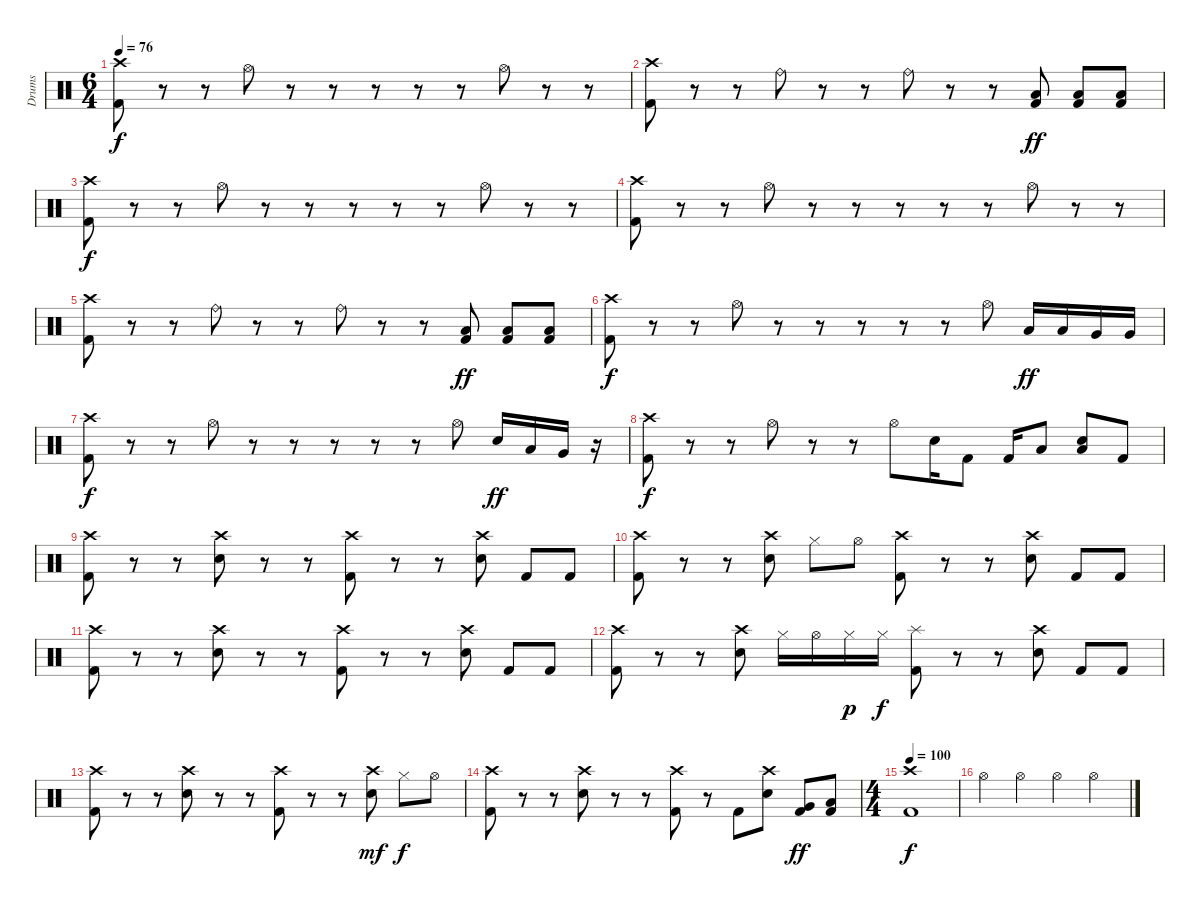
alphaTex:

\track ("Drums" "Drums") {instrument percussion}
\staff {score}
\articulation defaults
\ts (6 4)
\tempo 76
\clef neutral
\ks c
("Kick (hit) 2" "Crash high (hit)").8{dy f} r.8 r.8 "Hi-Hat (open)".8 r.8 r.8 r.8 r.8 r.8 "Hi-Hat (open)".8 r.8 r.8 |
("Kick (hit) 2" "Crash high (hit)").8 r.8 r.8 "Ride (bell)".8 r.8 r.8 "Ride (bell)".8 r.8 r.8 ("Kick (hit) 2" "Low Tom (hit)").8{dy ff} ("Kick (hit) 2" "Low Tom (hit)").8 ("Kick (hit) 2" "Low Tom (hit)").8 |
("Kick (hit) 2" "Crash high (hit)").8{dy f} r.8 r.8 "Hi-Hat (open)".8 r.8 r.8 r.8 r.8 r.8 "Hi-Hat (open)".8 r.8 r.8 |
("Kick (hit) 2" "Crash high (hit)").8 r.8 r.8 "Hi-Hat (open)".8 r.8 r.8 r.8 r.8 r.8 "Hi-Hat (open)".8 r.8 r.8 |
("Kick (hit) 2" "Crash high (hit)").8 r.8 r.8 "Ride (bell)".8 r.8 r.8 "Ride (bell)".8 r.8 r.8 ("Kick (hit) 2" "Low Tom (hit)").8{dy ff} ("Kick (hit) 2" "Low Tom (hit)").8 ("Kick (hit) 2" "Low Tom (hit)").8 |
("Kick (hit) 2" "Crash high (hit)").8{dy f} r.8 r.8 "Hi-Hat (open)".8 r.8 r.8 r.8 r.8 r.8 "Hi-Hat (open)".8 "Low Tom (hit)".16{dy ff} "Low Tom (hit)".16 "Very Low Tom (hit)".16 "Very Low Tom (hit)".16 |
("Kick (hit) 2" "Crash high (hit)").8{dy f} r.8 r.8 "Hi-Hat (open)".8 r.8 r.8 r.8 r.8 r.8 "Hi-Hat (open)".8 "Electric Snare (hit)".16{dy ff} "Low Tom (hit)".16 "Very Low Tom (hit)".16 r.16 |
("Kick (hit) 2" "Crash high (hit)").8{dy f} r.8 r.8 "Hi-Hat (open)".8 r.8 r.8 "Hi-Hat (open)".8 "Electric Snare (hit)".16 "Kick (hit) 2".8 "Kick (hit) 2".16 "Low Tom (hit)".8 ("Electric Snare (hit)" "Low Tom (hit)").8 "Kick (hit) 2".8 |
("Kick (hit) 2" "Crash high (hit)").8 r.8 r.8 ("Electric Snare (hit)" "Crash high (hit)").8 r.8 r.8 ("Kick (hit) 2" "Crash high (hit)").8 r.8 r.8 ("Electric Snare (hit)" "Crash high (hit)").8 "Kick (hit) 2".8 "Kick (hit) 2".8 |
("Kick (hit) 2" "Crash high (hit)").8 r.8 r.8 ("Electric Snare (hit)" "Crash high (hit)").8 "Hi-Hat (closed)".8 "Hi-Hat (open)".8 ("Kick (hit) 2" "Crash high (hit)").8 r.8 r.8 ("Electric Snare (hit)" "Crash high (hit)").8 "Kick (hit) 2".8 "Kick (hit) 2".8 |
("Kick (hit) 2" "Crash high (hit)").8 r.8 r.8 ("Electric Snare (hit)" "Crash high (hit)").8 r.8 r.8 ("Kick (hit) 2" "Crash high (hit)").8 r.8 r.8 ("Electric Snare (hit)" "Crash high (hit)").8 "Kick (hit) 2".8 "Kick (hit) 2".8 |
("Kick (hit) 2" "Crash high (hit)").8 r.8 r.8 ("Electric Snare (hit)" "Crash high (hit)").8 "Hi-Hat (closed)".16 "Hi-Hat (open)".16 "Hi-Hat (closed)".16{dy p} "Hi-Hat (closed)".16{dy f} ("Kick (hit) 2" "Splash (hit)").8 r.8 r.8 ("Electric Snare (hit)" "Crash high (hit)").8 "Kick (hit) 2".8 "Kick (hit) 2".8 |
("Kick (hit) 2" "Crash high (hit)").8 r.8 r.8 ("Electric Snare (hit)" "Crash high (hit)").8 r.8 r.8 ("Kick (hit) 2" "Crash high (hit)").8 r.8 r.8 ("Electric Snare (hit)" "Crash high (hit)").8{dy mf} "Hi-Hat (closed)".8{dy f} "Hi-Hat (open)".8 |
("Kick (hit) 2" "Crash high (hit)").8 r.8 r.8 ("Electric Snare (hit)" "Crash high (hit)").8 r.8 r.8 ("Kick (hit) 2" "Crash high (hit)").8 r.8 "Kick (hit) 2".8 ("Electric Snare (hit)" "Crash high (hit)").8 ("Kick (hit) 2" "Very Low Tom (hit)").8{dy ff} ("Kick (hit) 2" "Low Tom (hit)").8 |
\ts (4 4)
\tempo 100
("Kick (hit) 2" "Crash high (hit)").1{dy f} |
"Hi-Hat (open)".4 "Hi-Hat (open)".4 "Hi-Hat (open)".4 "Hi-Hat (open)".4
